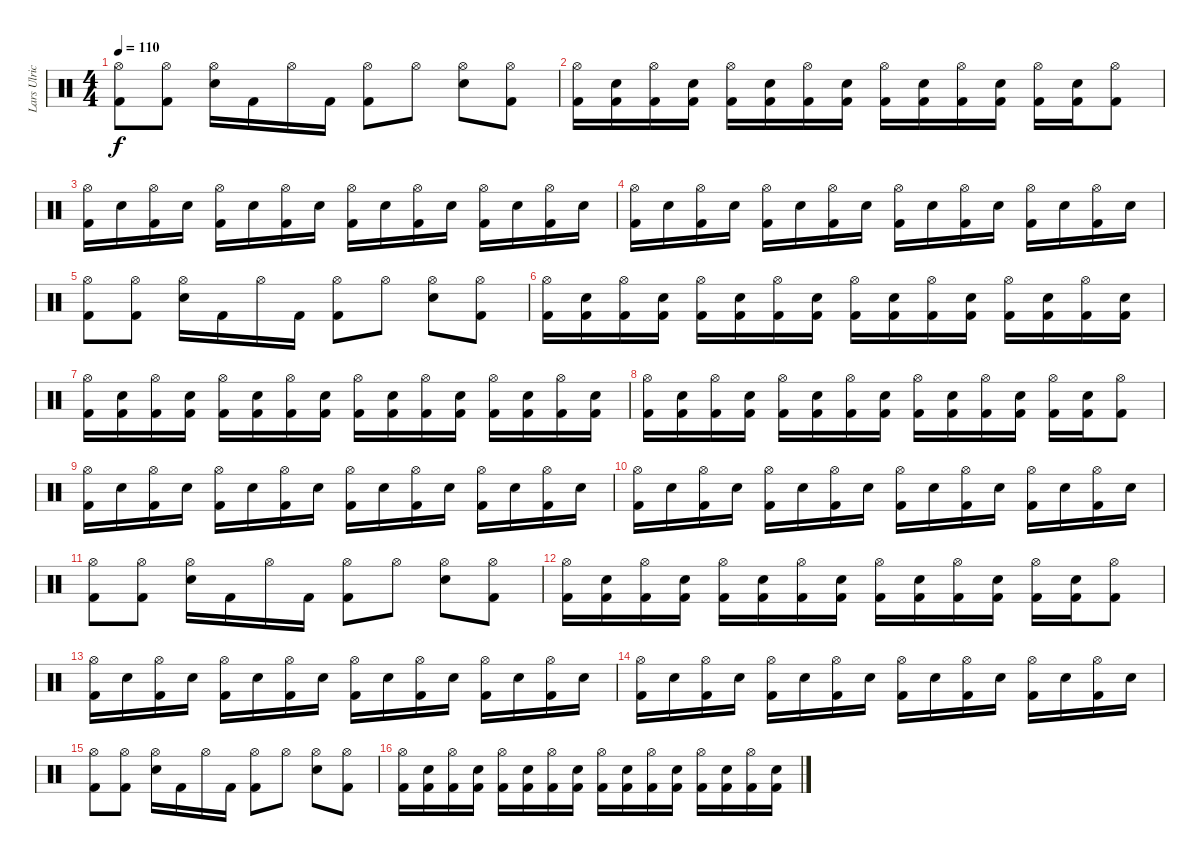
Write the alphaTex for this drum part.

\track ("Lars Ulrich" "Lars Ulric") {instrument percussion}
\staff {score}
\articulation defaults
\ts (4 4)
\tempo 110
\clef neutral
\ks c
("Hi-Hat (open)" "Kick (hit) 2").8{dy f} ("Hi-Hat (open)" "Kick (hit) 2").8 ("Hi-Hat (open)" "Electric Snare (hit)").16 "Kick (hit) 2".16 "Hi-Hat (open)".16 "Kick (hit) 2".16 ("Hi-Hat (open)" "Kick (hit) 2").8 "Hi-Hat (open)".8 ("Hi-Hat (open)" "Electric Snare (hit)").8 ("Hi-Hat (open)" "Kick (hit) 2").8 |
("Hi-Hat (open)" "Kick (hit) 2").16 ("Electric Snare (hit)" "Kick (hit) 2").16 ("Hi-Hat (open)" "Kick (hit) 2").16 ("Electric Snare (hit)" "Kick (hit) 2").16 ("Hi-Hat (open)" "Kick (hit) 2").16 ("Electric Snare (hit)" "Kick (hit) 2").16 ("Hi-Hat (open)" "Kick (hit) 2").16 ("Electric Snare (hit)" "Kick (hit) 2").16 ("Hi-Hat (open)" "Kick (hit) 2").16 ("Electric Snare (hit)" "Kick (hit) 2").16 ("Hi-Hat (open)" "Kick (hit) 2").16 ("Electric Snare (hit)" "Kick (hit) 2").16 ("Hi-Hat (open)" "Kick (hit) 2").16 ("Electric Snare (hit)" "Kick (hit) 2").16 ("Hi-Hat (open)" "Kick (hit) 2").8 |
("Hi-Hat (open)" "Kick (hit) 2").16 "Electric Snare (hit)".16 ("Hi-Hat (open)" "Kick (hit) 2").16 "Electric Snare (hit)".16 ("Hi-Hat (open)" "Kick (hit) 2").16 "Electric Snare (hit)".16 ("Hi-Hat (open)" "Kick (hit) 2").16 "Electric Snare (hit)".16 ("Hi-Hat (open)" "Kick (hit) 2").16 "Electric Snare (hit)".16 ("Hi-Hat (open)" "Kick (hit) 2").16 "Electric Snare (hit)".16 ("Hi-Hat (open)" "Kick (hit) 2").16 "Electric Snare (hit)".16 ("Hi-Hat (open)" "Kick (hit) 2").16 "Electric Snare (hit)".16 |
("Hi-Hat (open)" "Kick (hit) 2").16 "Electric Snare (hit)".16 ("Hi-Hat (open)" "Kick (hit) 2").16 "Electric Snare (hit)".16 ("Hi-Hat (open)" "Kick (hit) 2").16 "Electric Snare (hit)".16 ("Hi-Hat (open)" "Kick (hit) 2").16 "Electric Snare (hit)".16 ("Hi-Hat (open)" "Kick (hit) 2").16 "Electric Snare (hit)".16 ("Hi-Hat (open)" "Kick (hit) 2").16 "Electric Snare (hit)".16 ("Hi-Hat (open)" "Kick (hit) 2").16 "Electric Snare (hit)".16 ("Hi-Hat (open)" "Kick (hit) 2").16 "Electric Snare (hit)".16 |
("Hi-Hat (open)" "Kick (hit) 2").8 ("Hi-Hat (open)" "Kick (hit) 2").8 ("Hi-Hat (open)" "Electric Snare (hit)").16 "Kick (hit) 2".16 "Hi-Hat (open)".16 "Kick (hit) 2".16 ("Hi-Hat (open)" "Kick (hit) 2").8 "Hi-Hat (open)".8 ("Hi-Hat (open)" "Electric Snare (hit)").8 ("Hi-Hat (open)" "Kick (hit) 2").8 |
("Hi-Hat (open)" "Kick (hit) 2").16 ("Electric Snare (hit)" "Kick (hit) 2").16 ("Hi-Hat (open)" "Kick (hit) 2").16 ("Electric Snare (hit)" "Kick (hit) 2").16 ("Hi-Hat (open)" "Kick (hit) 2").16 ("Electric Snare (hit)" "Kick (hit) 2").16 ("Hi-Hat (open)" "Kick (hit) 2").16 ("Electric Snare (hit)" "Kick (hit) 2").16 ("Hi-Hat (open)" "Kick (hit) 2").16 ("Electric Snare (hit)" "Kick (hit) 2").16 ("Hi-Hat (open)" "Kick (hit) 2").16 ("Electric Snare (hit)" "Kick (hit) 2").16 ("Hi-Hat (open)" "Kick (hit) 2").16 ("Electric Snare (hit)" "Kick (hit) 2").16 ("Hi-Hat (open)" "Kick (hit) 2").16 ("Electric Snare (hit)" "Kick (hit) 2").16 |
("Hi-Hat (open)" "Kick (hit) 2").16 ("Electric Snare (hit)" "Kick (hit) 2").16 ("Hi-Hat (open)" "Kick (hit) 2").16 ("Electric Snare (hit)" "Kick (hit) 2").16 ("Hi-Hat (open)" "Kick (hit) 2").16 ("Electric Snare (hit)" "Kick (hit) 2").16 ("Hi-Hat (open)" "Kick (hit) 2").16 ("Electric Snare (hit)" "Kick (hit) 2").16 ("Hi-Hat (open)" "Kick (hit) 2").16 ("Electric Snare (hit)" "Kick (hit) 2").16 ("Hi-Hat (open)" "Kick (hit) 2").16 ("Electric Snare (hit)" "Kick (hit) 2").16 ("Hi-Hat (open)" "Kick (hit) 2").16 ("Electric Snare (hit)" "Kick (hit) 2").16 ("Hi-Hat (open)" "Kick (hit) 2").16 ("Electric Snare (hit)" "Kick (hit) 2").16 |
("Hi-Hat (open)" "Kick (hit) 2").16 ("Electric Snare (hit)" "Kick (hit) 2").16 ("Hi-Hat (open)" "Kick (hit) 2").16 ("Electric Snare (hit)" "Kick (hit) 2").16 ("Hi-Hat (open)" "Kick (hit) 2").16 ("Electric Snare (hit)" "Kick (hit) 2").16 ("Hi-Hat (open)" "Kick (hit) 2").16 ("Electric Snare (hit)" "Kick (hit) 2").16 ("Hi-Hat (open)" "Kick (hit) 2").16 ("Electric Snare (hit)" "Kick (hit) 2").16 ("Hi-Hat (open)" "Kick (hit) 2").16 ("Electric Snare (hit)" "Kick (hit) 2").16 ("Hi-Hat (open)" "Kick (hit) 2").16 ("Electric Snare (hit)" "Kick (hit) 2").16 ("Hi-Hat (open)" "Kick (hit) 2").8 |
("Hi-Hat (open)" "Kick (hit) 2").16 "Electric Snare (hit)".16 ("Hi-Hat (open)" "Kick (hit) 2").16 "Electric Snare (hit)".16 ("Hi-Hat (open)" "Kick (hit) 2").16 "Electric Snare (hit)".16 ("Hi-Hat (open)" "Kick (hit) 2").16 "Electric Snare (hit)".16 ("Hi-Hat (open)" "Kick (hit) 2").16 "Electric Snare (hit)".16 ("Hi-Hat (open)" "Kick (hit) 2").16 "Electric Snare (hit)".16 ("Hi-Hat (open)" "Kick (hit) 2").16 "Electric Snare (hit)".16 ("Hi-Hat (open)" "Kick (hit) 2").16 "Electric Snare (hit)".16 |
("Hi-Hat (open)" "Kick (hit) 2").16 "Electric Snare (hit)".16 ("Hi-Hat (open)" "Kick (hit) 2").16 "Electric Snare (hit)".16 ("Hi-Hat (open)" "Kick (hit) 2").16 "Electric Snare (hit)".16 ("Hi-Hat (open)" "Kick (hit) 2").16 "Electric Snare (hit)".16 ("Hi-Hat (open)" "Kick (hit) 2").16 "Electric Snare (hit)".16 ("Hi-Hat (open)" "Kick (hit) 2").16 "Electric Snare (hit)".16 ("Hi-Hat (open)" "Kick (hit) 2").16 "Electric Snare (hit)".16 ("Hi-Hat (open)" "Kick (hit) 2").16 "Electric Snare (hit)".16 |
("Hi-Hat (open)" "Kick (hit) 2").8 ("Hi-Hat (open)" "Kick (hit) 2").8 ("Hi-Hat (open)" "Electric Snare (hit)").16 "Kick (hit) 2".16 "Hi-Hat (open)".16 "Kick (hit) 2".16 ("Hi-Hat (open)" "Kick (hit) 2").8 "Hi-Hat (open)".8 ("Hi-Hat (open)" "Electric Snare (hit)").8 ("Hi-Hat (open)" "Kick (hit) 2").8 |
("Hi-Hat (open)" "Kick (hit) 2").16 ("Electric Snare (hit)" "Kick (hit) 2").16 ("Hi-Hat (open)" "Kick (hit) 2").16 ("Electric Snare (hit)" "Kick (hit) 2").16 ("Hi-Hat (open)" "Kick (hit) 2").16 ("Electric Snare (hit)" "Kick (hit) 2").16 ("Hi-Hat (open)" "Kick (hit) 2").16 ("Electric Snare (hit)" "Kick (hit) 2").16 ("Hi-Hat (open)" "Kick (hit) 2").16 ("Electric Snare (hit)" "Kick (hit) 2").16 ("Hi-Hat (open)" "Kick (hit) 2").16 ("Electric Snare (hit)" "Kick (hit) 2").16 ("Hi-Hat (open)" "Kick (hit) 2").16 ("Electric Snare (hit)" "Kick (hit) 2").16 ("Hi-Hat (open)" "Kick (hit) 2").8 |
("Hi-Hat (open)" "Kick (hit) 2").16 "Electric Snare (hit)".16 ("Hi-Hat (open)" "Kick (hit) 2").16 "Electric Snare (hit)".16 ("Hi-Hat (open)" "Kick (hit) 2").16 "Electric Snare (hit)".16 ("Hi-Hat (open)" "Kick (hit) 2").16 "Electric Snare (hit)".16 ("Hi-Hat (open)" "Kick (hit) 2").16 "Electric Snare (hit)".16 ("Hi-Hat (open)" "Kick (hit) 2").16 "Electric Snare (hit)".16 ("Hi-Hat (open)" "Kick (hit) 2").16 "Electric Snare (hit)".16 ("Hi-Hat (open)" "Kick (hit) 2").16 "Electric Snare (hit)".16 |
("Hi-Hat (open)" "Kick (hit) 2").16 "Electric Snare (hit)".16 ("Hi-Hat (open)" "Kick (hit) 2").16 "Electric Snare (hit)".16 ("Hi-Hat (open)" "Kick (hit) 2").16 "Electric Snare (hit)".16 ("Hi-Hat (open)" "Kick (hit) 2").16 "Electric Snare (hit)".16 ("Hi-Hat (open)" "Kick (hit) 2").16 "Electric Snare (hit)".16 ("Hi-Hat (open)" "Kick (hit) 2").16 "Electric Snare (hit)".16 ("Hi-Hat (open)" "Kick (hit) 2").16 "Electric Snare (hit)".16 ("Hi-Hat (open)" "Kick (hit) 2").16 "Electric Snare (hit)".16 |
("Hi-Hat (open)" "Kick (hit) 2").8 ("Hi-Hat (open)" "Kick (hit) 2").8 ("Hi-Hat (open)" "Electric Snare (hit)").16 "Kick (hit) 2".16 "Hi-Hat (open)".16 "Kick (hit) 2".16 ("Hi-Hat (open)" "Kick (hit) 2").8 "Hi-Hat (open)".8 ("Hi-Hat (open)" "Electric Snare (hit)").8 ("Hi-Hat (open)" "Kick (hit) 2").8 |
("Hi-Hat (open)" "Kick (hit) 2").16 ("Electric Snare (hit)" "Kick (hit) 2").16 ("Hi-Hat (open)" "Kick (hit) 2").16 ("Electric Snare (hit)" "Kick (hit) 2").16 ("Hi-Hat (open)" "Kick (hit) 2").16 ("Electric Snare (hit)" "Kick (hit) 2").16 ("Hi-Hat (open)" "Kick (hit) 2").16 ("Electric Snare (hit)" "Kick (hit) 2").16 ("Hi-Hat (open)" "Kick (hit) 2").16 ("Electric Snare (hit)" "Kick (hit) 2").16 ("Hi-Hat (open)" "Kick (hit) 2").16 ("Electric Snare (hit)" "Kick (hit) 2").16 ("Hi-Hat (open)" "Kick (hit) 2").16 ("Electric Snare (hit)" "Kick (hit) 2").16 ("Hi-Hat (open)" "Kick (hit) 2").16 ("Electric Snare (hit)" "Kick (hit) 2").16
